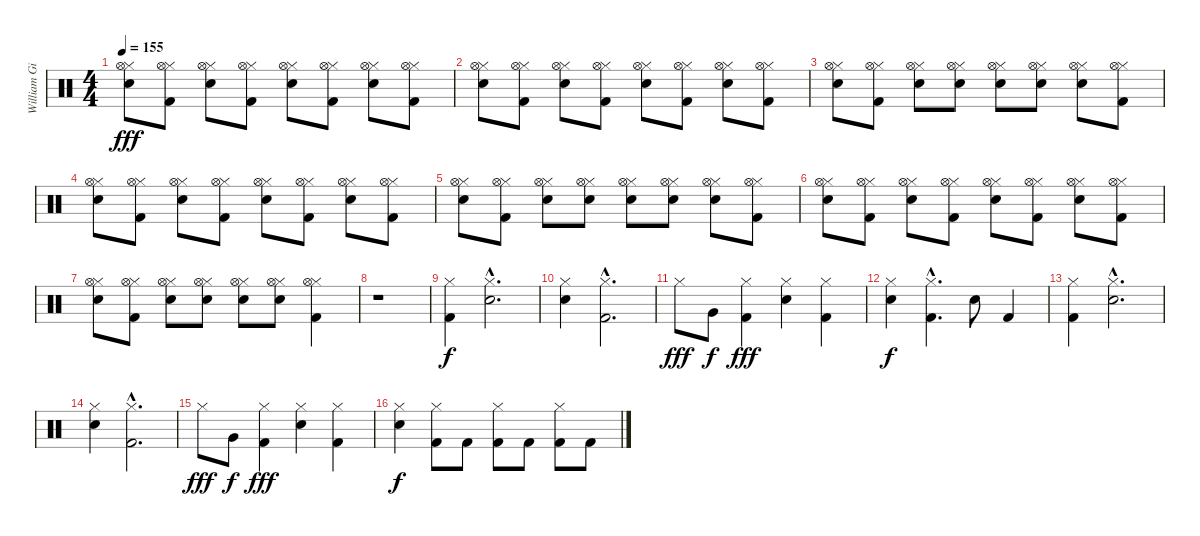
\track ("William Gibson" "William Gi") {instrument percussion}
\staff {score}
\articulation defaults
\ts (4 4)
\tempo 155
\clef neutral
\ks c
("Hi-Hat (closed)" "Electric Snare (hit)" "Hi-Hat (open)").8{dy fff} ("Hi-Hat (closed)" "Kick (hit) 2" "Hi-Hat (open)").8 ("Hi-Hat (closed)" "Electric Snare (hit)" "Hi-Hat (open)").8 ("Hi-Hat (closed)" "Kick (hit) 2" "Hi-Hat (open)").8 ("Hi-Hat (closed)" "Electric Snare (hit)" "Hi-Hat (open)").8 ("Hi-Hat (closed)" "Kick (hit) 2" "Hi-Hat (open)").8 ("Hi-Hat (closed)" "Electric Snare (hit)" "Hi-Hat (open)").8 ("Hi-Hat (closed)" "Kick (hit) 2" "Hi-Hat (open)").8 |
("Hi-Hat (closed)" "Electric Snare (hit)" "Hi-Hat (open)").8 ("Hi-Hat (closed)" "Kick (hit) 2" "Hi-Hat (open)").8 ("Hi-Hat (closed)" "Electric Snare (hit)" "Hi-Hat (open)").8 ("Hi-Hat (closed)" "Kick (hit) 2" "Hi-Hat (open)").8 ("Hi-Hat (closed)" "Electric Snare (hit)" "Hi-Hat (open)").8 ("Hi-Hat (closed)" "Kick (hit) 2" "Hi-Hat (open)").8 ("Hi-Hat (closed)" "Electric Snare (hit)" "Hi-Hat (open)").8 ("Hi-Hat (closed)" "Kick (hit) 2" "Hi-Hat (open)").8 |
("Hi-Hat (closed)" "Electric Snare (hit)" "Hi-Hat (open)").8 ("Hi-Hat (closed)" "Kick (hit) 2" "Hi-Hat (open)").8 ("Hi-Hat (closed)" "Electric Snare (hit)" "Hi-Hat (open)").8 ("Hi-Hat (closed)" "Electric Snare (hit)" "Hi-Hat (open)").8 ("Hi-Hat (closed)" "Electric Snare (hit)" "Hi-Hat (open)").8 ("Hi-Hat (closed)" "Electric Snare (hit)" "Hi-Hat (open)").8 ("Hi-Hat (closed)" "Electric Snare (hit)" "Hi-Hat (open)").8 ("Hi-Hat (closed)" "Kick (hit) 2" "Hi-Hat (open)").8 |
("Hi-Hat (closed)" "Electric Snare (hit)" "Hi-Hat (open)").8 ("Hi-Hat (closed)" "Kick (hit) 2" "Hi-Hat (open)").8 ("Hi-Hat (closed)" "Electric Snare (hit)" "Hi-Hat (open)").8 ("Hi-Hat (closed)" "Kick (hit) 2" "Hi-Hat (open)").8 ("Hi-Hat (closed)" "Electric Snare (hit)" "Hi-Hat (open)").8 ("Hi-Hat (closed)" "Kick (hit) 2" "Hi-Hat (open)").8 ("Hi-Hat (closed)" "Electric Snare (hit)" "Hi-Hat (open)").8 ("Hi-Hat (closed)" "Kick (hit) 2" "Hi-Hat (open)").8 |
("Hi-Hat (closed)" "Electric Snare (hit)" "Hi-Hat (open)").8 ("Hi-Hat (closed)" "Kick (hit) 2" "Hi-Hat (open)").8 ("Hi-Hat (closed)" "Electric Snare (hit)" "Hi-Hat (open)").8 ("Hi-Hat (closed)" "Electric Snare (hit)" "Hi-Hat (open)").8 ("Hi-Hat (closed)" "Electric Snare (hit)" "Hi-Hat (open)").8 ("Hi-Hat (closed)" "Electric Snare (hit)" "Hi-Hat (open)").8 ("Hi-Hat (closed)" "Electric Snare (hit)" "Hi-Hat (open)").8 ("Hi-Hat (closed)" "Kick (hit) 2" "Hi-Hat (open)").8 |
("Hi-Hat (closed)" "Electric Snare (hit)" "Hi-Hat (open)").8 ("Hi-Hat (closed)" "Kick (hit) 2" "Hi-Hat (open)").8 ("Hi-Hat (closed)" "Electric Snare (hit)" "Hi-Hat (open)").8 ("Hi-Hat (closed)" "Kick (hit) 2" "Hi-Hat (open)").8 ("Hi-Hat (closed)" "Electric Snare (hit)" "Hi-Hat (open)").8 ("Hi-Hat (closed)" "Kick (hit) 2" "Hi-Hat (open)").8 ("Hi-Hat (closed)" "Electric Snare (hit)" "Hi-Hat (open)").8 ("Hi-Hat (closed)" "Kick (hit) 2" "Hi-Hat (open)").8 |
("Hi-Hat (closed)" "Electric Snare (hit)" "Hi-Hat (open)").8 ("Hi-Hat (closed)" "Kick (hit) 2" "Hi-Hat (open)").8 ("Hi-Hat (closed)" "Electric Snare (hit)" "Hi-Hat (open)").8 ("Hi-Hat (closed)" "Electric Snare (hit)" "Hi-Hat (open)").8 ("Hi-Hat (closed)" "Electric Snare (hit)" "Hi-Hat (open)").8 ("Hi-Hat (closed)" "Electric Snare (hit)" "Hi-Hat (open)").8 ("Hi-Hat (closed)" "Kick (hit) 2" "Hi-Hat (open)").4 |
r.1 |
("Hi-Hat (closed)" "Kick (hit) 2").4{dy f} ("Hi-Hat (closed)"{hac} "Electric Snare (hit)"{hac}).2{d} |
("Hi-Hat (closed)" "Electric Snare (hit)").4 ("Hi-Hat (closed)"{hac} "Kick (hit) 2"{hac}).2{d} |
"Hi-Hat (closed)".8{dy fff} "Very Low Tom (hit)".8{dy f} ("Hi-Hat (closed)" "Kick (hit) 2").4{dy fff} ("Hi-Hat (closed)" "Electric Snare (hit)").4 ("Hi-Hat (closed)" "Kick (hit) 2").4 |
("Hi-Hat (closed)" "Electric Snare (hit)").4{dy f} ("Hi-Hat (closed)"{hac} "Kick (hit) 2"{hac}).4{d} "Electric Snare (hit)".8 "Kick (hit) 2".4 |
("Hi-Hat (closed)" "Kick (hit) 2").4 ("Hi-Hat (closed)"{hac} "Electric Snare (hit)"{hac}).2{d} |
("Hi-Hat (closed)" "Electric Snare (hit)").4 ("Hi-Hat (closed)"{hac} "Kick (hit) 2"{hac}).2{d} |
"Hi-Hat (closed)".8{dy fff} "Very Low Tom (hit)".8{dy f} ("Hi-Hat (closed)" "Kick (hit) 2").4{dy fff} ("Hi-Hat (closed)" "Electric Snare (hit)").4 ("Hi-Hat (closed)" "Kick (hit) 2").4 |
("Hi-Hat (closed)" "Electric Snare (hit)").4{dy f} ("Hi-Hat (closed)" "Kick (hit) 2").8 "Kick (hit) 2".8 ("Hi-Hat (closed)" "Kick (hit) 2").8 "Kick (hit) 2".8 ("Hi-Hat (closed)" "Kick (hit) 2").8 "Kick (hit) 2".8
